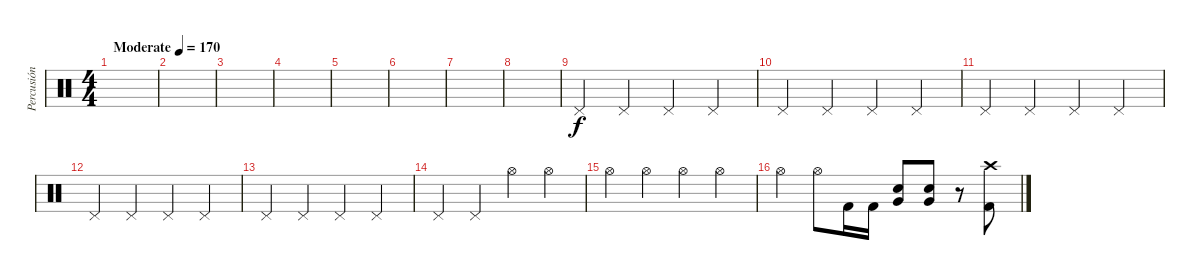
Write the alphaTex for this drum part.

\track ("Percusión" "Percusión") {instrument percussion}
\staff {score}
\articulation defaults
\ts (4 4)
\tempo (170 "Moderate")
\clef neutral
\ks c
|
|
|
|
|
|
|
|
"Pedal Hi-Hat (hit)".4 "Pedal Hi-Hat (hit)".4 "Pedal Hi-Hat (hit)".4 "Pedal Hi-Hat (hit)".4 |
"Pedal Hi-Hat (hit)".4 "Pedal Hi-Hat (hit)".4 "Pedal Hi-Hat (hit)".4 "Pedal Hi-Hat (hit)".4 |
"Pedal Hi-Hat (hit)".4 "Pedal Hi-Hat (hit)".4 "Pedal Hi-Hat (hit)".4 "Pedal Hi-Hat (hit)".4 |
"Pedal Hi-Hat (hit)".4 "Pedal Hi-Hat (hit)".4 "Pedal Hi-Hat (hit)".4 "Pedal Hi-Hat (hit)".4 |
"Pedal Hi-Hat (hit)".4 "Pedal Hi-Hat (hit)".4 "Pedal Hi-Hat (hit)".4 "Pedal Hi-Hat (hit)".4 |
"Pedal Hi-Hat (hit)".4 "Pedal Hi-Hat (hit)".4 "Hi-Hat (open)".4{volume 5} "Hi-Hat (open)".4{volume 16} |
"Hi-Hat (open)".4 "Hi-Hat (open)".4 "Hi-Hat (open)".4 "Hi-Hat (open)".4 |
"Hi-Hat (open)".4 "Hi-Hat (open)".8 "Kick (hit) 2".16 "Kick (hit) 2".16 ("Snare (hit) 2" "Very Low Tom (hit)").8 ("Snare (hit) 2" "Very Low Tom (hit)").8 r.8 ("Kick (hit) 2" "Crash high (hit)").8
